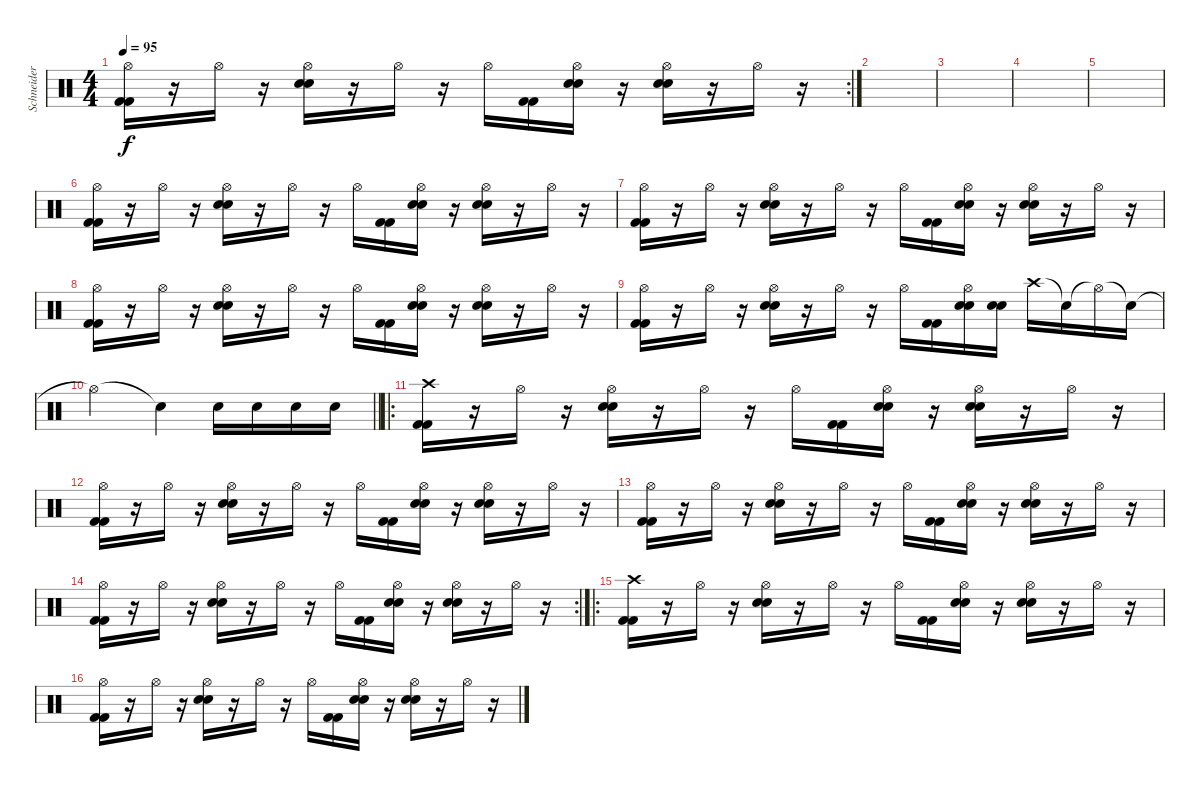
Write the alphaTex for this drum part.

\track ("Schneider" "Schneider") {instrument percussion}
\staff {score}
\articulation defaults
\rc 2
\ts (4 4)
\tempo 95
\clef neutral
\ks c
("Hi-Hat (open)" "Kick (hit) 2" "Kick (hit) 2").16{dy f} r.16 "Hi-Hat (open)".16 r.16 ("Hi-Hat (open)" "Electric Snare (hit)" "Electric Snare (hit)").16 r.16 "Hi-Hat (open)".16 r.16 "Hi-Hat (open)".16 ("Kick (hit) 2" "Kick (hit) 2").16 ("Hi-Hat (open)" "Electric Snare (hit)" "Electric Snare (hit)").16 r.16 ("Hi-Hat (open)" "Electric Snare (hit)" "Electric Snare (hit)").16 r.16 "Hi-Hat (open)".16 r.16 |
|
|
|
|
("Hi-Hat (open)" "Kick (hit) 2" "Kick (hit) 2").16 r.16 "Hi-Hat (open)".16 r.16 ("Hi-Hat (open)" "Electric Snare (hit)" "Electric Snare (hit)").16 r.16 "Hi-Hat (open)".16 r.16 "Hi-Hat (open)".16 ("Kick (hit) 2" "Kick (hit) 2").16 ("Hi-Hat (open)" "Electric Snare (hit)" "Electric Snare (hit)").16 r.16 ("Hi-Hat (open)" "Electric Snare (hit)" "Electric Snare (hit)").16 r.16 "Hi-Hat (open)".16 r.16 |
("Hi-Hat (open)" "Kick (hit) 2" "Kick (hit) 2").16 r.16 "Hi-Hat (open)".16 r.16 ("Hi-Hat (open)" "Electric Snare (hit)" "Electric Snare (hit)").16 r.16 "Hi-Hat (open)".16 r.16 "Hi-Hat (open)".16 ("Kick (hit) 2" "Kick (hit) 2").16 ("Hi-Hat (open)" "Electric Snare (hit)" "Electric Snare (hit)").16 r.16 ("Hi-Hat (open)" "Electric Snare (hit)" "Electric Snare (hit)").16 r.16 "Hi-Hat (open)".16 r.16 |
("Hi-Hat (open)" "Kick (hit) 2" "Kick (hit) 2").16 r.16 "Hi-Hat (open)".16 r.16 ("Hi-Hat (open)" "Electric Snare (hit)" "Electric Snare (hit)").16 r.16 "Hi-Hat (open)".16 r.16 "Hi-Hat (open)".16 ("Kick (hit) 2" "Kick (hit) 2").16 ("Hi-Hat (open)" "Electric Snare (hit)" "Electric Snare (hit)").16 r.16 ("Hi-Hat (open)" "Electric Snare (hit)" "Electric Snare (hit)").16 r.16 "Hi-Hat (open)".16 r.16 |
("Hi-Hat (open)" "Kick (hit) 2" "Kick (hit) 2").16 r.16 "Hi-Hat (open)".16 r.16 ("Hi-Hat (open)" "Electric Snare (hit)" "Electric Snare (hit)").16 r.16 "Hi-Hat (open)".16 r.16 "Hi-Hat (open)".16 ("Kick (hit) 2" "Kick (hit) 2").16 ("Hi-Hat (open)" "Electric Snare (hit)" "Electric Snare (hit)").16 ("Electric Snare (hit)" "Electric Snare (hit)").16 "Crash high (hit)".16 "Snare (hit)"{t}.16 "Hi-Hat (open)"{t}.16 "Snare (hit)"{t}.16 |
\barLineRight lightlight "Hi-Hat (open)"{t}.2 "Snare (hit)"{t}.4 "Electric Snare (hit)".16 "Electric Snare (hit)".16 "Electric Snare (hit)".16 "Electric Snare (hit)".16
|
\ro
("Crash high (hit)" "Kick (hit) 2" "Kick (hit) 2").16 r.16 "Hi-Hat (open)".16 r.16 ("Hi-Hat (open)" "Electric Snare (hit)" "Electric Snare (hit)").16 r.16 "Hi-Hat (open)".16 r.16 "Hi-Hat (open)".16 ("Kick (hit) 2" "Kick (hit) 2").16 ("Hi-Hat (open)" "Electric Snare (hit)" "Electric Snare (hit)").16 r.16 ("Hi-Hat (open)" "Electric Snare (hit)" "Electric Snare (hit)").16 r.16 "Hi-Hat (open)".16 r.16 |
("Hi-Hat (open)" "Kick (hit) 2" "Kick (hit) 2").16 r.16 "Hi-Hat (open)".16 r.16 ("Hi-Hat (open)" "Electric Snare (hit)" "Electric Snare (hit)").16 r.16 "Hi-Hat (open)".16 r.16 "Hi-Hat (open)".16 ("Kick (hit) 2" "Kick (hit) 2").16 ("Hi-Hat (open)" "Electric Snare (hit)" "Electric Snare (hit)").16 r.16 ("Hi-Hat (open)" "Electric Snare (hit)" "Electric Snare (hit)").16 r.16 "Hi-Hat (open)".16 r.16 |
("Hi-Hat (open)" "Kick (hit) 2" "Kick (hit) 2").16 r.16 "Hi-Hat (open)".16 r.16 ("Hi-Hat (open)" "Electric Snare (hit)" "Electric Snare (hit)").16 r.16 "Hi-Hat (open)".16 r.16 "Hi-Hat (open)".16 ("Kick (hit) 2" "Kick (hit) 2").16 ("Hi-Hat (open)" "Electric Snare (hit)" "Electric Snare (hit)").16 r.16 ("Hi-Hat (open)" "Electric Snare (hit)" "Electric Snare (hit)").16 r.16 "Hi-Hat (open)".16 r.16 |
\rc 2
("Hi-Hat (open)" "Kick (hit) 2" "Kick (hit) 2").16 r.16 "Hi-Hat (open)".16 r.16 ("Hi-Hat (open)" "Electric Snare (hit)" "Electric Snare (hit)").16 r.16 "Hi-Hat (open)".16 r.16 "Hi-Hat (open)".16 ("Kick (hit) 2" "Kick (hit) 2").16 ("Hi-Hat (open)" "Electric Snare (hit)" "Electric Snare (hit)").16 r.16 ("Hi-Hat (open)" "Electric Snare (hit)" "Electric Snare (hit)").16 r.16 "Hi-Hat (open)".16 r.16 |
\ro
("Crash high (hit)" "Kick (hit) 2" "Kick (hit) 2").16 r.16 "Hi-Hat (open)".16 r.16 ("Hi-Hat (open)" "Electric Snare (hit)" "Electric Snare (hit)").16 r.16 "Hi-Hat (open)".16 r.16 "Hi-Hat (open)".16 ("Kick (hit) 2" "Kick (hit) 2").16 ("Hi-Hat (open)" "Electric Snare (hit)" "Electric Snare (hit)").16 r.16 ("Hi-Hat (open)" "Electric Snare (hit)" "Electric Snare (hit)").16 r.16 "Hi-Hat (open)".16 r.16 |
("Hi-Hat (open)" "Kick (hit) 2" "Kick (hit) 2").16 r.16 "Hi-Hat (open)".16 r.16 ("Hi-Hat (open)" "Electric Snare (hit)" "Electric Snare (hit)").16 r.16 "Hi-Hat (open)".16 r.16 "Hi-Hat (open)".16 ("Kick (hit) 2" "Kick (hit) 2").16 ("Hi-Hat (open)" "Electric Snare (hit)" "Electric Snare (hit)").16 r.16 ("Hi-Hat (open)" "Electric Snare (hit)" "Electric Snare (hit)").16 r.16 "Hi-Hat (open)".16 r.16
